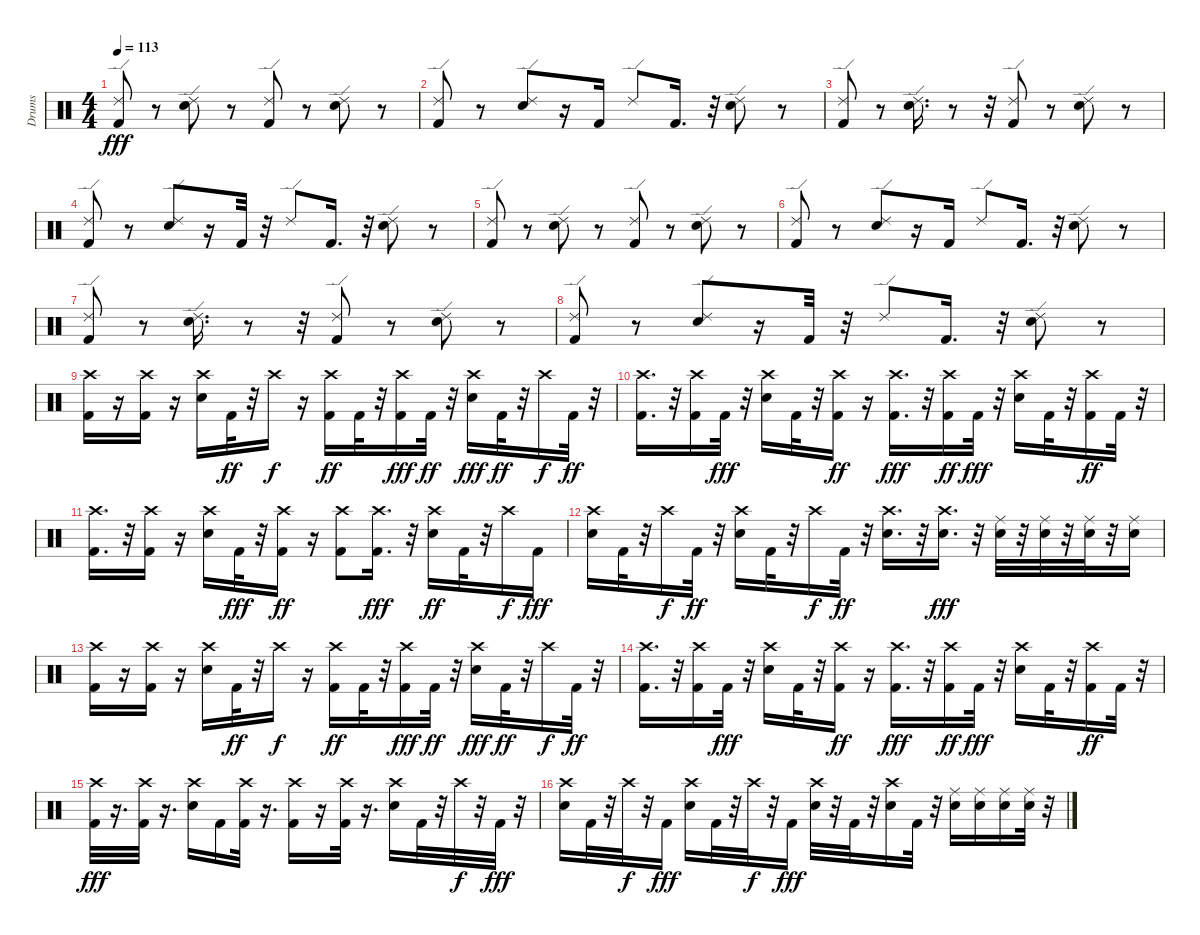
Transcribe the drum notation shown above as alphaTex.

\track ("Drums" "Drums") {instrument percussion}
\staff {score}
\articulation defaults
\ts (4 4)
\tempo 113
\clef neutral
\ks c
("Kick (hit) 2" "Ride (edge) 2").8{dy fff} r.8 ("Ride (edge) 2" "Snare (hit) 2").8 r.8 ("Kick (hit) 2" "Ride (edge) 2").8 r.8 ("Snare (hit) 2" "Ride (edge) 2").8 r.8 |
("Kick (hit) 2" "Ride (edge) 2").8 r.8 ("Snare (hit) 2" "Ride (edge) 2").8 r.16 "Kick (hit) 2".16 "Ride (edge) 2".8 "Kick (hit) 2".16{d} r.32 ("Snare (hit) 2" "Ride (edge) 2").8 r.8 |
("Kick (hit) 2" "Ride (edge) 2").8 r.8 ("Snare (hit) 2" "Ride (edge) 2").16{d} r.8 r.32 ("Kick (hit) 2" "Ride (edge) 2").8 r.8 ("Ride (edge) 2" "Snare (hit) 2").8 r.8 |
("Kick (hit) 2" "Ride (edge) 2").8 r.8 ("Snare (hit) 2" "Ride (edge) 2").8 r.16 "Kick (hit) 2".32 r.32 "Ride (edge) 2".8 "Kick (hit) 2".16{d} r.32 ("Snare (hit) 2" "Ride (edge) 2").8 r.8 |
("Kick (hit) 2" "Ride (edge) 2").8 r.8 ("Ride (edge) 2" "Snare (hit) 2").8 r.8 ("Kick (hit) 2" "Ride (edge) 2").8 r.8 ("Snare (hit) 2" "Ride (edge) 2").8 r.8 |
("Kick (hit) 2" "Ride (edge) 2").8 r.8 ("Snare (hit) 2" "Ride (edge) 2").8 r.16 "Kick (hit) 2".16 "Ride (edge) 2".8 "Kick (hit) 2".16{d} r.32 ("Snare (hit) 2" "Ride (edge) 2").8 r.8 |
("Kick (hit) 2" "Ride (edge) 2").8 r.8 ("Snare (hit) 2" "Ride (edge) 2").16{d} r.8 r.32 ("Kick (hit) 2" "Ride (edge) 2").8 r.8 ("Ride (edge) 2" "Snare (hit) 2").8 r.8 |
("Kick (hit) 2" "Ride (edge) 2").8 r.8 ("Snare (hit) 2" "Ride (edge) 2").8 r.16 "Kick (hit) 2".32 r.32 "Ride (edge) 2".8 "Kick (hit) 2".16{d} r.32 ("Snare (hit) 2" "Ride (edge) 2").8 r.8 |
("Kick (hit) 2" "Crash high (hit)").16 r.16 ("Kick (hit) 2" "Crash high (hit)").16 r.16 ("Snare (hit) 2" "Crash high (hit)").16 "Kick (hit) 2".32{dy ff} r.32 "Crash high (hit)".16{dy f} r.16 ("Kick (hit) 2" "Crash high (hit)").16{dy ff} "Kick (hit) 2".32 r.32 ("Kick (hit) 2" "Crash high (hit)").16{dy fff} "Kick (hit) 2".32{dy ff} r.32 ("Snare (hit) 2" "Crash high (hit)").16{dy fff} "Kick (hit) 2".32{dy ff} r.32 "Crash high (hit)".16{dy f} "Kick (hit) 2".32{dy ff} r.32 |
("Kick (hit) 2" "Crash high (hit)").16{d} r.32 ("Kick (hit) 2" "Crash high (hit)").16 "Kick (hit) 2".32{dy fff} r.32 ("Snare (hit) 2" "Crash high (hit)").16 "Kick (hit) 2".32 r.32 ("Kick (hit) 2" "Crash high (hit)").16{dy ff} r.16 ("Kick (hit) 2" "Crash high (hit)").16{d dy fff} r.32 ("Kick (hit) 2" "Crash high (hit)").16{dy ff} "Kick (hit) 2".32{dy fff} r.32 ("Snare (hit) 2" "Crash high (hit)").16 "Kick (hit) 2".32 r.32 ("Kick (hit) 2" "Crash high (hit)").16{dy ff} "Kick (hit) 2".32 r.32 |
("Kick (hit) 2" "Crash high (hit)").16{d} r.32 ("Kick (hit) 2" "Crash high (hit)").16 r.16 ("Snare (hit) 2" "Crash high (hit)").16 "Kick (hit) 2".32{dy fff} r.32 ("Kick (hit) 2" "Crash high (hit)").16{dy ff} r.16 ("Kick (hit) 2" "Crash high (hit)").8 ("Kick (hit) 2" "Crash high (hit)").16{d dy fff} r.32 ("Snare (hit) 2" "Crash high (hit)").16{dy ff} "Kick (hit) 2".32 r.32 "Crash high (hit)".16{dy f} "Kick (hit) 2".16{dy fff} |
("Snare (hit) 2" "Crash high (hit)").16 "Kick (hit) 2".32 r.32 "Crash high (hit)".16{dy f} "Kick (hit) 2".32{dy ff} r.32 ("Snare (hit) 2" "Crash high (hit)").16 "Kick (hit) 2".32 r.32 "Crash high (hit)".16{dy f} "Kick (hit) 2".32{dy ff} r.32 ("Snare (hit) 2" "Crash high (hit)").16{d} r.32 ("Snare (hit) 2" "Crash high (hit)").16{d dy fff} r.32 ("Snare (hit) 2" "Ride (middle)").32 r.32 ("Snare (hit) 2" "Ride (middle)").32 r.32 ("Snare (hit) 2" "Ride (middle)").32 r.32 ("Snare (hit) 2" "Ride (middle)").16 |
("Kick (hit) 2" "Crash high (hit)").16 r.16 ("Kick (hit) 2" "Crash high (hit)").16 r.16 ("Snare (hit) 2" "Crash high (hit)").16 "Kick (hit) 2".32{dy ff} r.32 "Crash high (hit)".16{dy f} r.16 ("Kick (hit) 2" "Crash high (hit)").16{dy ff} "Kick (hit) 2".32 r.32 ("Kick (hit) 2" "Crash high (hit)").16{dy fff} "Kick (hit) 2".32{dy ff} r.32 ("Snare (hit) 2" "Crash high (hit)").16{dy fff} "Kick (hit) 2".32{dy ff} r.32 "Crash high (hit)".16{dy f} "Kick (hit) 2".32{dy ff} r.32 |
("Kick (hit) 2" "Crash high (hit)").16{d} r.32 ("Kick (hit) 2" "Crash high (hit)").16 "Kick (hit) 2".32{dy fff} r.32 ("Snare (hit) 2" "Crash high (hit)").16 "Kick (hit) 2".32 r.32 ("Kick (hit) 2" "Crash high (hit)").16{dy ff} r.16 ("Kick (hit) 2" "Crash high (hit)").16{d dy fff} r.32 ("Kick (hit) 2" "Crash high (hit)").16{dy ff} "Kick (hit) 2".32{dy fff} r.32 ("Snare (hit) 2" "Crash high (hit)").16 "Kick (hit) 2".32 r.32 ("Kick (hit) 2" "Crash high (hit)").16{dy ff} "Kick (hit) 2".32 r.32 |
("Kick (hit) 2" "Crash high (hit)").32{dy fff} r.16{d} ("Kick (hit) 2" "Crash high (hit)").32 r.16{d} ("Snare (hit) 2" "Crash high (hit)").16 "Kick (hit) 2".16 ("Kick (hit) 2" "Crash high (hit)").32 r.16{d} ("Kick (hit) 2" "Crash high (hit)").16 r.16 ("Kick (hit) 2" "Crash high (hit)").32 r.16{d} ("Snare (hit) 2" "Crash high (hit)").16 "Kick (hit) 2".32 r.32 "Crash high (hit)".32{dy f} r.32 "Kick (hit) 2".32{dy fff} r.32 |
("Snare (hit) 2" "Crash high (hit)").16 "Kick (hit) 2".32 r.32 "Crash high (hit)".32{dy f} r.32 "Kick (hit) 2".16{dy fff} ("Snare (hit) 2" "Crash high (hit)").16 "Kick (hit) 2".32 r.32 "Crash high (hit)".32{dy f} r.32 "Kick (hit) 2".16{dy fff} ("Snare (hit) 2" "Crash high (hit)").32 r.32 "Kick (hit) 2".32 r.32 ("Snare (hit) 2" "Crash high (hit)").16 "Kick (hit) 2".32 r.32 ("Snare (hit) 2" "Ride (middle)").16 ("Snare (hit) 2" "Ride (middle)").16 ("Snare (hit) 2" "Ride (middle)").16 ("Snare (hit) 2" "Ride (middle)").32 r.32
